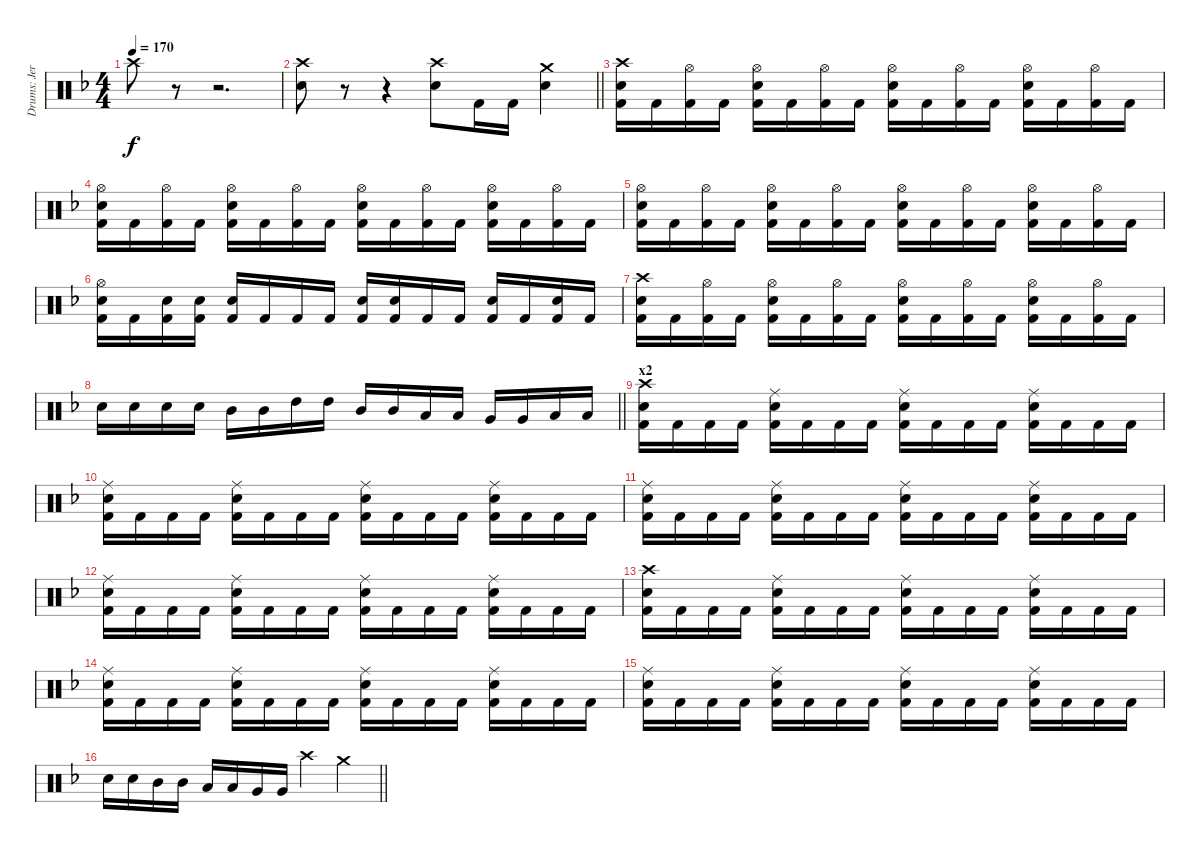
\track ("Drums: Jere Luokkamäki" "Drums: Jer") {instrument percussion}
\staff {score}
\articulation defaults
\ts (4 4)
\tempo 170
\clef neutral
\ks dminor "Crash high (hit)".8{dy f}
r.8 r.2{d} |
\barLineRight lightlight
("Crash high (hit)" "Electric Snare (hit)").8 r.8 r.4 ("Crash high (hit)" "Electric Snare (hit)").8 "Kick (hit) 2".16 "Kick (hit) 2".16 ("Crash medium (hit)" "Electric Snare (hit)").4 |
("Crash high (hit)" "Electric Snare (hit)" "Kick (hit) 2").16 "Kick (hit) 2".16 ("Hi-Hat (open)" "Kick (hit) 2").16 "Kick (hit) 2".16 ("Hi-Hat (open)" "Electric Snare (hit)" "Kick (hit) 2").16 "Kick (hit) 2".16 ("Hi-Hat (open)" "Kick (hit) 2").16 "Kick (hit) 2".16 ("Hi-Hat (open)" "Electric Snare (hit)" "Kick (hit) 2").16 "Kick (hit) 2".16 ("Hi-Hat (open)" "Kick (hit) 2").16 "Kick (hit) 2".16 ("Hi-Hat (open)" "Electric Snare (hit)" "Kick (hit) 2").16 "Kick (hit) 2".16 ("Hi-Hat (open)" "Kick (hit) 2").16 "Kick (hit) 2".16 |
("Hi-Hat (open)" "Electric Snare (hit)" "Kick (hit) 2").16 "Kick (hit) 2".16 ("Hi-Hat (open)" "Kick (hit) 2").16 "Kick (hit) 2".16 ("Hi-Hat (open)" "Electric Snare (hit)" "Kick (hit) 2").16 "Kick (hit) 2".16 ("Hi-Hat (open)" "Kick (hit) 2").16 "Kick (hit) 2".16 ("Hi-Hat (open)" "Electric Snare (hit)" "Kick (hit) 2").16 "Kick (hit) 2".16 ("Hi-Hat (open)" "Kick (hit) 2").16 "Kick (hit) 2".16 ("Hi-Hat (open)" "Electric Snare (hit)" "Kick (hit) 2").16 "Kick (hit) 2".16 ("Hi-Hat (open)" "Kick (hit) 2").16 "Kick (hit) 2".16 |
("Hi-Hat (open)" "Electric Snare (hit)" "Kick (hit) 2").16 "Kick (hit) 2".16 ("Hi-Hat (open)" "Kick (hit) 2").16 "Kick (hit) 2".16 ("Hi-Hat (open)" "Electric Snare (hit)" "Kick (hit) 2").16 "Kick (hit) 2".16 ("Hi-Hat (open)" "Kick (hit) 2").16 "Kick (hit) 2".16 ("Hi-Hat (open)" "Electric Snare (hit)" "Kick (hit) 2").16 "Kick (hit) 2".16 ("Hi-Hat (open)" "Kick (hit) 2").16 "Kick (hit) 2".16 ("Hi-Hat (open)" "Electric Snare (hit)" "Kick (hit) 2").16 "Kick (hit) 2".16 ("Hi-Hat (open)" "Kick (hit) 2").16 "Kick (hit) 2".16 |
("Hi-Hat (open)" "Electric Snare (hit)" "Kick (hit) 2").16 "Kick (hit) 2".16 ("Electric Snare (hit)" "Kick (hit) 2").16 ("Electric Snare (hit)" "Kick (hit) 2").16 ("Electric Snare (hit)" "Kick (hit) 2").16 "Kick (hit) 2".16 "Kick (hit) 2".16 "Kick (hit) 2".16 ("Electric Snare (hit)" "Kick (hit) 2").16 ("Electric Snare (hit)" "Kick (hit) 2").16 "Kick (hit) 2".16 "Kick (hit) 2".16 ("Electric Snare (hit)" "Kick (hit) 2").16 "Kick (hit) 2".16 ("Electric Snare (hit)" "Kick (hit) 2").16 "Kick (hit) 2".16 |
("Crash high (hit)" "Electric Snare (hit)" "Kick (hit) 2").16 "Kick (hit) 2".16 ("Hi-Hat (open)" "Kick (hit) 2").16 "Kick (hit) 2".16 ("Hi-Hat (open)" "Electric Snare (hit)" "Kick (hit) 2").16 "Kick (hit) 2".16 ("Hi-Hat (open)" "Kick (hit) 2").16 "Kick (hit) 2".16 ("Hi-Hat (open)" "Electric Snare (hit)" "Kick (hit) 2").16 "Kick (hit) 2".16 ("Hi-Hat (open)" "Kick (hit) 2").16 "Kick (hit) 2".16 ("Hi-Hat (open)" "Electric Snare (hit)" "Kick (hit) 2").16 "Kick (hit) 2".16 ("Hi-Hat (open)" "Kick (hit) 2").16 "Kick (hit) 2".16 |
\barLineRight lightlight "Electric Snare (hit)".16 "Electric Snare (hit)".16 "Electric Snare (hit)".16 "Electric Snare (hit)".16 "Mid Tom (hit)".16 "Mid Tom (hit)".16 "High Tom (hit)".16 "High Tom (hit)".16 "Mid Tom (hit)".16 "Mid Tom (hit)".16 "Low Tom (hit)".16 "Low Tom (hit)".16 "Very Low Tom (hit)".16 "Very Low Tom (hit)".16 "Low Floor Tom (hit)".16 "Low Floor Tom (hit)".16
|
\section ("" "x2")
("Crash high (hit)" "Electric Snare (hit)" "Kick (hit) 2").16 "Kick (hit) 2".16 "Kick (hit) 2".16 "Kick (hit) 2".16 ("Ride (middle)" "Electric Snare (hit)" "Kick (hit) 2").16 "Kick (hit) 2".16 "Kick (hit) 2".16 "Kick (hit) 2".16 ("Ride (middle)" "Electric Snare (hit)" "Kick (hit) 2").16 "Kick (hit) 2".16 "Kick (hit) 2".16 "Kick (hit) 2".16 ("Ride (middle)" "Electric Snare (hit)" "Kick (hit) 2").16 "Kick (hit) 2".16 "Kick (hit) 2".16 "Kick (hit) 2".16 |
("Ride (middle)" "Electric Snare (hit)" "Kick (hit) 2").16 "Kick (hit) 2".16 "Kick (hit) 2".16 "Kick (hit) 2".16 ("Ride (middle)" "Electric Snare (hit)" "Kick (hit) 2").16 "Kick (hit) 2".16 "Kick (hit) 2".16 "Kick (hit) 2".16 ("Ride (middle)" "Electric Snare (hit)" "Kick (hit) 2").16 "Kick (hit) 2".16 "Kick (hit) 2".16 "Kick (hit) 2".16 ("Ride (middle)" "Electric Snare (hit)" "Kick (hit) 2").16 "Kick (hit) 2".16 "Kick (hit) 2".16 "Kick (hit) 2".16 |
("Ride (middle)" "Electric Snare (hit)" "Kick (hit) 2").16 "Kick (hit) 2".16 "Kick (hit) 2".16 "Kick (hit) 2".16 ("Ride (middle)" "Electric Snare (hit)" "Kick (hit) 2").16 "Kick (hit) 2".16 "Kick (hit) 2".16 "Kick (hit) 2".16 ("Ride (middle)" "Electric Snare (hit)" "Kick (hit) 2").16 "Kick (hit) 2".16 "Kick (hit) 2".16 "Kick (hit) 2".16 ("Ride (middle)" "Electric Snare (hit)" "Kick (hit) 2").16 "Kick (hit) 2".16 "Kick (hit) 2".16 "Kick (hit) 2".16 |
("Ride (middle)" "Electric Snare (hit)" "Kick (hit) 2").16 "Kick (hit) 2".16 "Kick (hit) 2".16 "Kick (hit) 2".16 ("Ride (middle)" "Electric Snare (hit)" "Kick (hit) 2").16 "Kick (hit) 2".16 "Kick (hit) 2".16 "Kick (hit) 2".16 ("Ride (middle)" "Electric Snare (hit)" "Kick (hit) 2").16 "Kick (hit) 2".16 "Kick (hit) 2".16 "Kick (hit) 2".16 ("Ride (middle)" "Electric Snare (hit)" "Kick (hit) 2").16 "Kick (hit) 2".16 "Kick (hit) 2".16 "Kick (hit) 2".16 |
("Crash high (hit)" "Electric Snare (hit)" "Kick (hit) 2").16 "Kick (hit) 2".16 "Kick (hit) 2".16 "Kick (hit) 2".16 ("Ride (middle)" "Electric Snare (hit)" "Kick (hit) 2").16 "Kick (hit) 2".16 "Kick (hit) 2".16 "Kick (hit) 2".16 ("Ride (middle)" "Electric Snare (hit)" "Kick (hit) 2").16 "Kick (hit) 2".16 "Kick (hit) 2".16 "Kick (hit) 2".16 ("Ride (middle)" "Electric Snare (hit)" "Kick (hit) 2").16 "Kick (hit) 2".16 "Kick (hit) 2".16 "Kick (hit) 2".16 |
("Ride (middle)" "Electric Snare (hit)" "Kick (hit) 2").16 "Kick (hit) 2".16 "Kick (hit) 2".16 "Kick (hit) 2".16 ("Ride (middle)" "Electric Snare (hit)" "Kick (hit) 2").16 "Kick (hit) 2".16 "Kick (hit) 2".16 "Kick (hit) 2".16 ("Ride (middle)" "Electric Snare (hit)" "Kick (hit) 2").16 "Kick (hit) 2".16 "Kick (hit) 2".16 "Kick (hit) 2".16 ("Ride (middle)" "Electric Snare (hit)" "Kick (hit) 2").16 "Kick (hit) 2".16 "Kick (hit) 2".16 "Kick (hit) 2".16 |
("Ride (middle)" "Electric Snare (hit)" "Kick (hit) 2").16 "Kick (hit) 2".16 "Kick (hit) 2".16 "Kick (hit) 2".16 ("Ride (middle)" "Electric Snare (hit)" "Kick (hit) 2").16 "Kick (hit) 2".16 "Kick (hit) 2".16 "Kick (hit) 2".16 ("Ride (middle)" "Electric Snare (hit)" "Kick (hit) 2").16 "Kick (hit) 2".16 "Kick (hit) 2".16 "Kick (hit) 2".16 ("Ride (middle)" "Electric Snare (hit)" "Kick (hit) 2").16 "Kick (hit) 2".16 "Kick (hit) 2".16 "Kick (hit) 2".16 |
\barLineRight lightlight "Electric Snare (hit)".16 "Electric Snare (hit)".16 "Mid Tom (hit)".16 "Mid Tom (hit)".16 "Low Tom (hit)".16 "Low Tom (hit)".16 "Very Low Tom (hit)".16 "Very Low Tom (hit)".16 "Crash high (hit)".4 "Crash medium (hit)".4
